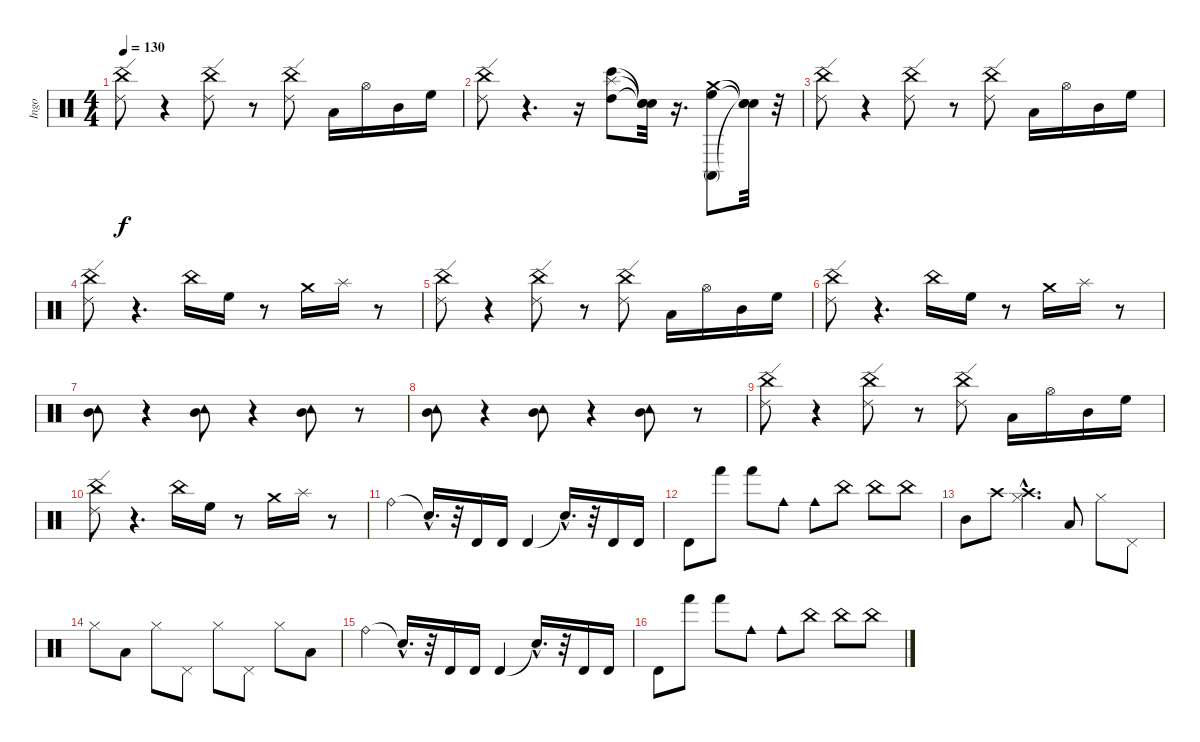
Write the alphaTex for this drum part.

\track ("Ingo" "Ingo") {instrument percussion}
\staff {score}
\articulation defaults
\ts (4 4)
\tempo 130
\clef neutral
\ks c
("Ride (edge) 2" "China (hit)").8{dy f} r.4 ("Ride (edge) 2" "China (hit)").8 r.8 ("Ride (edge) 2" "China (hit)").8 "Low Tom (hit)".16 "Hi-Hat (open)".16 "Mid Tom (hit)".16 "High Floor Tom (hit)".16 |
("Ride (edge) 2" "China (hit)").8 r.4{d} r.16 ("Bongo High (hit)" "High Tom (hit)" "Splash (hit)").8 ("Snare (hit)"{t} "Snare (hit)"{t} "Snare (hit)"{t}).32 r.16{d} ("Conga high (mute)" "High Floor Tom (hit)" "Crash medium (hit)").8 ("Snare (hit)"{t} "Snare (hit)"{t} "Snare (hit)"{t}).32 r.32 |
("Ride (edge) 2" "China (hit)").8 r.4 ("Ride (edge) 2" "China (hit)").8 r.8 ("Ride (edge) 2" "China (hit)").8 "Low Tom (hit)".16 "Hi-Hat (open)".16 "Mid Tom (hit)".16 "High Floor Tom (hit)".16 |
("Ride (edge) 2" "China (hit)").8 r.4{d} "China (hit)".16 "High Floor Tom (hit)".16 r.8 "Crash medium (hit)".16 "Splash (hit)".16 r.8 |
("Ride (edge) 2" "China (hit)").8 r.4 ("Ride (edge) 2" "China (hit)").8 r.8 ("Ride (edge) 2" "China (hit)").8 "Low Tom (hit)".16 "Hi-Hat (open)".16 "Mid Tom (hit)".16 "High Floor Tom (hit)".16 |
("Ride (edge) 2" "China (hit)").8 r.4{d} "China (hit)".16 "High Floor Tom (hit)".16 r.8 "Crash medium (hit)".16 "Splash (hit)".16 r.8 |
("Mid Tom (hit)" "Tambourine (hit)").8 r.4 ("Mid Tom (hit)" "Tambourine (hit)").8 r.4 ("Mid Tom (hit)" "Tambourine (hit)").8 r.8 |
("Mid Tom (hit)" "Tambourine (hit)").8 r.4 ("Mid Tom (hit)" "Tambourine (hit)").8 r.4 ("Mid Tom (hit)" "Tambourine (hit)").8 r.8 |
("Ride (edge) 2" "China (hit)").8 r.4 ("Ride (edge) 2" "China (hit)").8 r.8 ("Ride (edge) 2" "China (hit)").8 "Low Tom (hit)".16 "Hi-Hat (open)".16 "Mid Tom (hit)".16 "High Floor Tom (hit)".16 |
("Ride (edge) 2" "China (hit)").8 r.4{d} "China (hit)".16 "High Floor Tom (hit)".16 r.8 "Crash medium (hit)".16 "Splash (hit)".16 r.8 |
"Ride (bell)".4 "Snare (hit)"{hac t}.16{d} r.32 "Timbale high (hit)".16 "Timbale high (hit)".16 "Timbale high (hit)".4 "Snare (hit)"{hac t}.16{d} r.32 "Timbale high (hit)".16 "Timbale high (hit)".16 |
"Timbale high (hit)".8 "Hand (hit)".8 "Hand (hit)".8 "Cowbell medium (hit)".8 "Cowbell medium (hit)".8 "China (hit)".8 "China (hit)".8 "China (hit)".8 |
"Mid Tom (hit)".8 "Crash high (hit)".8 ("Hi-Hat (closed)"{hac} "Crash high (hit)"{hac}).4{d} "Low Floor Tom (hit)".8 "Hi-Hat (closed)".8 "Pedal Hi-Hat (hit)".8 |
"Hi-Hat (closed)".8 "Low Floor Tom (hit)".8 "Hi-Hat (closed)".8 "Pedal Hi-Hat (hit)".8 "Hi-Hat (closed)".8 "Pedal Hi-Hat (hit)".8 "Hi-Hat (closed)".8 "Low Floor Tom (hit)".8 |
"Ride (bell)".4 "Snare (hit)"{hac t}.16{d} r.32 "Timbale high (hit)".16 "Timbale high (hit)".16 "Timbale high (hit)".4 "Snare (hit)"{hac t}.16{d} r.32 "Timbale high (hit)".16 "Timbale high (hit)".16 |
"Timbale high (hit)".8 "Hand (hit)".8 "Hand (hit)".8 "Cowbell medium (hit)".8 "Cowbell medium (hit)".8 "China (hit)".8 "China (hit)".8 "China (hit)".8
